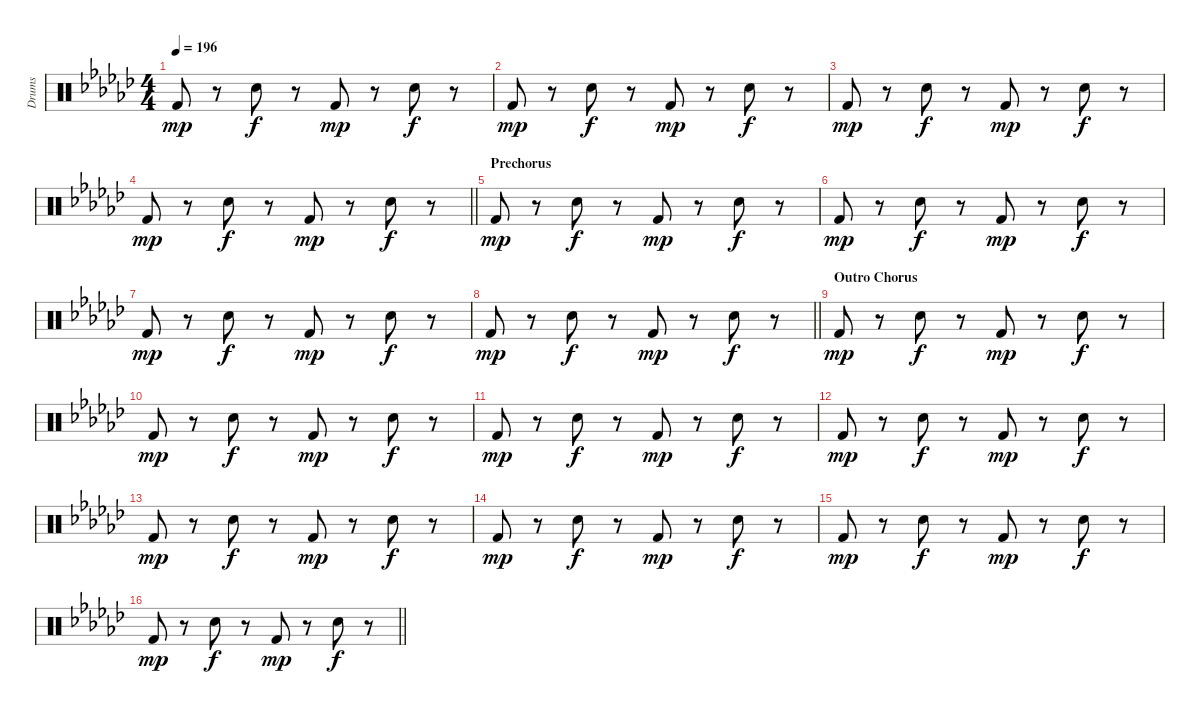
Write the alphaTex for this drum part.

\track ("Drums" "Drums") {instrument percussion}
\staff {score}
\articulation defaults
\ts (4 4)
\tempo 196
\clef neutral
\ks gb "Kick (hit) 2".8{dy mp}
r.8 "Snare (hit) 2".8{dy f} r.8 "Kick (hit) 2".8{dy mp} r.8 "Snare (hit) 2".8{dy f} r.8 |
"Kick (hit) 2".8{dy mp} r.8 "Snare (hit) 2".8{dy f} r.8 "Kick (hit) 2".8{dy mp} r.8 "Snare (hit) 2".8{dy f} r.8 |
"Kick (hit) 2".8{dy mp} r.8 "Snare (hit) 2".8{dy f} r.8 "Kick (hit) 2".8{dy mp} r.8 "Snare (hit) 2".8{dy f} r.8 |
\barLineRight lightlight "Kick (hit) 2".8{dy mp}
r.8 "Snare (hit) 2".8{dy f} r.8 "Kick (hit) 2".8{dy mp} r.8 "Snare (hit) 2".8{dy f} r.8 |
\section ("" "Prechorus")
"Kick (hit) 2".8{dy mp} r.8 "Snare (hit) 2".8{dy f} r.8 "Kick (hit) 2".8{dy mp} r.8 "Snare (hit) 2".8{dy f} r.8 |
"Kick (hit) 2".8{dy mp} r.8 "Snare (hit) 2".8{dy f} r.8 "Kick (hit) 2".8{dy mp} r.8 "Snare (hit) 2".8{dy f} r.8 |
"Kick (hit) 2".8{dy mp} r.8 "Snare (hit) 2".8{dy f} r.8 "Kick (hit) 2".8{dy mp} r.8 "Snare (hit) 2".8{dy f} r.8 |
\barLineRight lightlight "Kick (hit) 2".8{dy mp}
r.8 "Snare (hit) 2".8{dy f} r.8 "Kick (hit) 2".8{dy mp} r.8 "Snare (hit) 2".8{dy f} r.8 |
\section ("" "Outro Chorus")
"Kick (hit) 2".8{dy mp} r.8 "Snare (hit) 2".8{dy f} r.8 "Kick (hit) 2".8{dy mp} r.8 "Snare (hit) 2".8{dy f} r.8 |
"Kick (hit) 2".8{dy mp} r.8 "Snare (hit) 2".8{dy f} r.8 "Kick (hit) 2".8{dy mp} r.8 "Snare (hit) 2".8{dy f} r.8 |
"Kick (hit) 2".8{dy mp} r.8 "Snare (hit) 2".8{dy f} r.8 "Kick (hit) 2".8{dy mp} r.8 "Snare (hit) 2".8{dy f} r.8 |
"Kick (hit) 2".8{dy mp} r.8 "Snare (hit) 2".8{dy f} r.8 "Kick (hit) 2".8{dy mp} r.8 "Snare (hit) 2".8{dy f} r.8 |
"Kick (hit) 2".8{dy mp} r.8 "Snare (hit) 2".8{dy f} r.8 "Kick (hit) 2".8{dy mp} r.8 "Snare (hit) 2".8{dy f} r.8 |
"Kick (hit) 2".8{dy mp} r.8 "Snare (hit) 2".8{dy f} r.8 "Kick (hit) 2".8{dy mp} r.8 "Snare (hit) 2".8{dy f} r.8 |
"Kick (hit) 2".8{dy mp} r.8 "Snare (hit) 2".8{dy f} r.8 "Kick (hit) 2".8{dy mp} r.8 "Snare (hit) 2".8{dy f} r.8 |
\barLineRight lightlight "Kick (hit) 2".8{dy mp}
r.8 "Snare (hit) 2".8{dy f} r.8 "Kick (hit) 2".8{dy mp} r.8 "Snare (hit) 2".8{dy f} r.8
